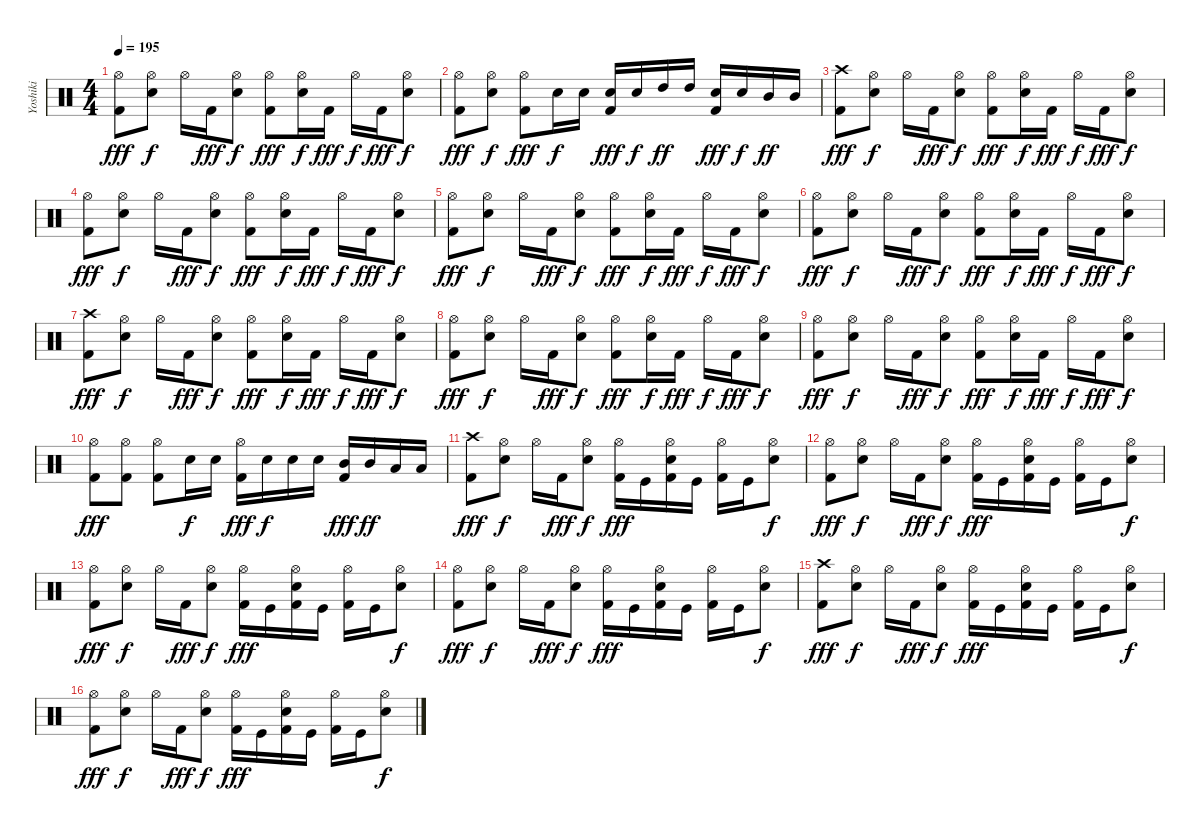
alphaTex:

\track ("Yoshiki" "Yoshiki") {instrument percussion}
\staff {score}
\articulation defaults
\ts (4 4)
\tempo 195
\clef neutral
\ks c
("Hi-Hat (open)" "Kick (hit) 2").8{dy fff} ("Hi-Hat (open)" "Electric Snare (hit)").8{dy f} "Hi-Hat (open)".16 "Kick (hit) 2".16{dy fff} ("Hi-Hat (open)" "Electric Snare (hit)").8{dy f} ("Hi-Hat (open)" "Kick (hit) 2").8{dy fff} ("Hi-Hat (open)" "Electric Snare (hit)").16{dy f} "Kick (hit) 2".16{dy fff} "Hi-Hat (open)".16{dy f} "Kick (hit) 2".16{dy fff} ("Hi-Hat (open)" "Electric Snare (hit)").8{dy f} |
("Hi-Hat (open)" "Kick (hit) 2").8{dy fff} ("Hi-Hat (open)" "Electric Snare (hit)").8{dy f} ("Hi-Hat (open)" "Kick (hit) 2").8{dy fff} "Electric Snare (hit)".16{dy f} "Electric Snare (hit)".16 ("Electric Snare (hit)" "Kick (hit) 2").16{dy fff} "Electric Snare (hit)".16{dy f} "High Tom (hit)".16{dy ff} "High Tom (hit)".16 ("Electric Snare (hit)" "Kick (hit) 2").16{dy fff} "Electric Snare (hit)".16{dy f} "Mid Tom (hit)".16{dy ff} "Mid Tom (hit)".16 |
("Crash high (hit)" "Kick (hit) 2").8{dy fff} ("Hi-Hat (open)" "Electric Snare (hit)").8{dy f} "Hi-Hat (open)".16 "Kick (hit) 2".16{dy fff} ("Hi-Hat (open)" "Electric Snare (hit)").8{dy f} ("Hi-Hat (open)" "Kick (hit) 2").8{dy fff} ("Hi-Hat (open)" "Electric Snare (hit)").16{dy f} "Kick (hit) 2".16{dy fff} "Hi-Hat (open)".16{dy f} "Kick (hit) 2".16{dy fff} ("Hi-Hat (open)" "Electric Snare (hit)").8{dy f} |
("Hi-Hat (open)" "Kick (hit) 2").8{dy fff} ("Hi-Hat (open)" "Electric Snare (hit)").8{dy f} "Hi-Hat (open)".16 "Kick (hit) 2".16{dy fff} ("Hi-Hat (open)" "Electric Snare (hit)").8{dy f} ("Hi-Hat (open)" "Kick (hit) 2").8{dy fff} ("Hi-Hat (open)" "Electric Snare (hit)").16{dy f} "Kick (hit) 2".16{dy fff} "Hi-Hat (open)".16{dy f} "Kick (hit) 2".16{dy fff} ("Hi-Hat (open)" "Electric Snare (hit)").8{dy f} |
("Hi-Hat (open)" "Kick (hit) 2").8{dy fff} ("Hi-Hat (open)" "Electric Snare (hit)").8{dy f} "Hi-Hat (open)".16 "Kick (hit) 2".16{dy fff} ("Hi-Hat (open)" "Electric Snare (hit)").8{dy f} ("Hi-Hat (open)" "Kick (hit) 2").8{dy fff} ("Hi-Hat (open)" "Electric Snare (hit)").16{dy f} "Kick (hit) 2".16{dy fff} "Hi-Hat (open)".16{dy f} "Kick (hit) 2".16{dy fff} ("Hi-Hat (open)" "Electric Snare (hit)").8{dy f} |
("Hi-Hat (open)" "Kick (hit) 2").8{dy fff} ("Hi-Hat (open)" "Electric Snare (hit)").8{dy f} "Hi-Hat (open)".16 "Kick (hit) 2".16{dy fff} ("Hi-Hat (open)" "Electric Snare (hit)").8{dy f} ("Hi-Hat (open)" "Kick (hit) 2").8{dy fff} ("Hi-Hat (open)" "Electric Snare (hit)").16{dy f} "Kick (hit) 2".16{dy fff} "Hi-Hat (open)".16{dy f} "Kick (hit) 2".16{dy fff} ("Hi-Hat (open)" "Electric Snare (hit)").8{dy f} |
("Crash high (hit)" "Kick (hit) 2").8{dy fff} ("Hi-Hat (open)" "Electric Snare (hit)").8{dy f} "Hi-Hat (open)".16 "Kick (hit) 2".16{dy fff} ("Hi-Hat (open)" "Electric Snare (hit)").8{dy f} ("Hi-Hat (open)" "Kick (hit) 2").8{dy fff} ("Hi-Hat (open)" "Electric Snare (hit)").16{dy f} "Kick (hit) 2".16{dy fff} "Hi-Hat (open)".16{dy f} "Kick (hit) 2".16{dy fff} ("Hi-Hat (open)" "Electric Snare (hit)").8{dy f} |
("Hi-Hat (open)" "Kick (hit) 2").8{dy fff} ("Hi-Hat (open)" "Electric Snare (hit)").8{dy f} "Hi-Hat (open)".16 "Kick (hit) 2".16{dy fff} ("Hi-Hat (open)" "Electric Snare (hit)").8{dy f} ("Hi-Hat (open)" "Kick (hit) 2").8{dy fff} ("Hi-Hat (open)" "Electric Snare (hit)").16{dy f} "Kick (hit) 2".16{dy fff} "Hi-Hat (open)".16{dy f} "Kick (hit) 2".16{dy fff} ("Hi-Hat (open)" "Electric Snare (hit)").8{dy f} |
("Hi-Hat (open)" "Kick (hit) 2").8{dy fff} ("Hi-Hat (open)" "Electric Snare (hit)").8{dy f} "Hi-Hat (open)".16 "Kick (hit) 2".16{dy fff} ("Hi-Hat (open)" "Electric Snare (hit)").8{dy f} ("Hi-Hat (open)" "Kick (hit) 2").8{dy fff} ("Hi-Hat (open)" "Electric Snare (hit)").16{dy f} "Kick (hit) 2".16{dy fff} "Hi-Hat (open)".16{dy f} "Kick (hit) 2".16{dy fff} ("Hi-Hat (open)" "Electric Snare (hit)").8{dy f} |
("Hi-Hat (open)" "Kick (hit) 2").8{dy fff} ("Hi-Hat (open)" "Kick (hit) 2").8 ("Hi-Hat (open)" "Kick (hit) 2").8 "Electric Snare (hit)".16{dy f} "Electric Snare (hit)".16 ("Hi-Hat (open)" "Kick (hit) 2").16{dy fff} "Electric Snare (hit)".16{dy f} "Electric Snare (hit)".16 "Electric Snare (hit)".16 ("Mid Tom (hit)" "Kick (hit) 2").16{dy fff} "Mid Tom (hit)".16{dy ff} "Low Tom (hit)".16 "Low Tom (hit)".16 |
("Crash high (hit)" "Kick (hit) 2").8{dy fff} ("Hi-Hat (open)" "Electric Snare (hit)").8{dy f} "Hi-Hat (open)".16 "Kick (hit) 2".16{dy fff} ("Hi-Hat (open)" "Electric Snare (hit)").8{dy f} ("Hi-Hat (open)" "Kick (hit) 2").16{dy fff} "Kick (hit)".16 ("Hi-Hat (open)" "Electric Snare (hit)" "Kick (hit) 2").16 "Kick (hit)".16 ("Hi-Hat (open)" "Kick (hit) 2").16 "Kick (hit)".16 ("Hi-Hat (open)" "Electric Snare (hit)").8{dy f} |
("Hi-Hat (open)" "Kick (hit) 2").8{dy fff} ("Hi-Hat (open)" "Electric Snare (hit)").8{dy f} "Hi-Hat (open)".16 "Kick (hit) 2".16{dy fff} ("Hi-Hat (open)" "Electric Snare (hit)").8{dy f} ("Hi-Hat (open)" "Kick (hit) 2").16{dy fff} "Kick (hit)".16 ("Hi-Hat (open)" "Electric Snare (hit)" "Kick (hit) 2").16 "Kick (hit)".16 ("Hi-Hat (open)" "Kick (hit) 2").16 "Kick (hit)".16 ("Hi-Hat (open)" "Electric Snare (hit)").8{dy f} |
("Hi-Hat (open)" "Kick (hit) 2").8{dy fff} ("Hi-Hat (open)" "Electric Snare (hit)").8{dy f} "Hi-Hat (open)".16 "Kick (hit) 2".16{dy fff} ("Hi-Hat (open)" "Electric Snare (hit)").8{dy f} ("Hi-Hat (open)" "Kick (hit) 2").16{dy fff} "Kick (hit)".16 ("Hi-Hat (open)" "Electric Snare (hit)" "Kick (hit) 2").16 "Kick (hit)".16 ("Hi-Hat (open)" "Kick (hit) 2").16 "Kick (hit)".16 ("Hi-Hat (open)" "Electric Snare (hit)").8{dy f} |
("Hi-Hat (open)" "Kick (hit) 2").8{dy fff} ("Hi-Hat (open)" "Electric Snare (hit)").8{dy f} "Hi-Hat (open)".16 "Kick (hit) 2".16{dy fff} ("Hi-Hat (open)" "Electric Snare (hit)").8{dy f} ("Hi-Hat (open)" "Kick (hit) 2").16{dy fff} "Kick (hit)".16 ("Hi-Hat (open)" "Electric Snare (hit)" "Kick (hit) 2").16 "Kick (hit)".16 ("Hi-Hat (open)" "Kick (hit) 2").16 "Kick (hit)".16 ("Hi-Hat (open)" "Electric Snare (hit)").8{dy f} |
("Crash high (hit)" "Kick (hit) 2").8{dy fff} ("Hi-Hat (open)" "Electric Snare (hit)").8{dy f} "Hi-Hat (open)".16 "Kick (hit) 2".16{dy fff} ("Hi-Hat (open)" "Electric Snare (hit)").8{dy f} ("Hi-Hat (open)" "Kick (hit) 2").16{dy fff} "Kick (hit)".16 ("Hi-Hat (open)" "Electric Snare (hit)" "Kick (hit) 2").16 "Kick (hit)".16 ("Hi-Hat (open)" "Kick (hit) 2").16 "Kick (hit)".16 ("Hi-Hat (open)" "Electric Snare (hit)").8{dy f} |
("Hi-Hat (open)" "Kick (hit) 2").8{dy fff} ("Hi-Hat (open)" "Electric Snare (hit)").8{dy f} "Hi-Hat (open)".16 "Kick (hit) 2".16{dy fff} ("Hi-Hat (open)" "Electric Snare (hit)").8{dy f} ("Hi-Hat (open)" "Kick (hit) 2").16{dy fff} "Kick (hit)".16 ("Hi-Hat (open)" "Electric Snare (hit)" "Kick (hit) 2").16 "Kick (hit)".16 ("Hi-Hat (open)" "Kick (hit) 2").16 "Kick (hit)".16 ("Hi-Hat (open)" "Electric Snare (hit)").8{dy f}
